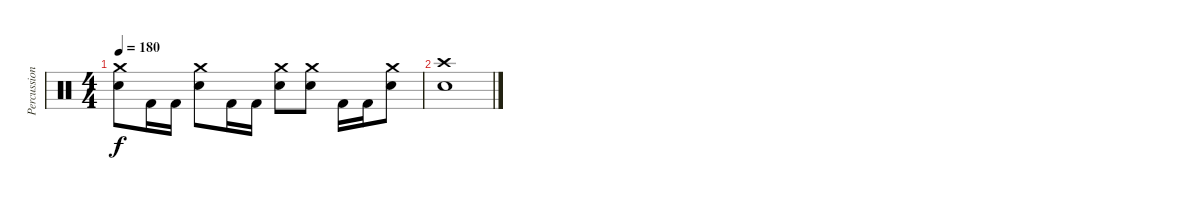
\track ("Percussion" "Percussion") {instrument percussion}
\staff {score}
\articulation defaults
\ts (4 4)
\tempo 180
\clef neutral
\ks c
("Crash medium (hit)" "Electric Snare (hit)").8{dy f} "Kick (hit) 2".16 "Kick (hit) 2".16 ("Crash medium (hit)" "Electric Snare (hit)").8 "Kick (hit) 2".16 "Kick (hit) 2".16 ("Crash medium (hit)" "Electric Snare (hit)").8 ("Crash medium (hit)" "Electric Snare (hit)").8 "Kick (hit) 2".16 "Kick (hit) 2".16 ("Crash medium (hit)" "Electric Snare (hit)").8 |
("Crash high (hit)" "Electric Snare (hit)").1
